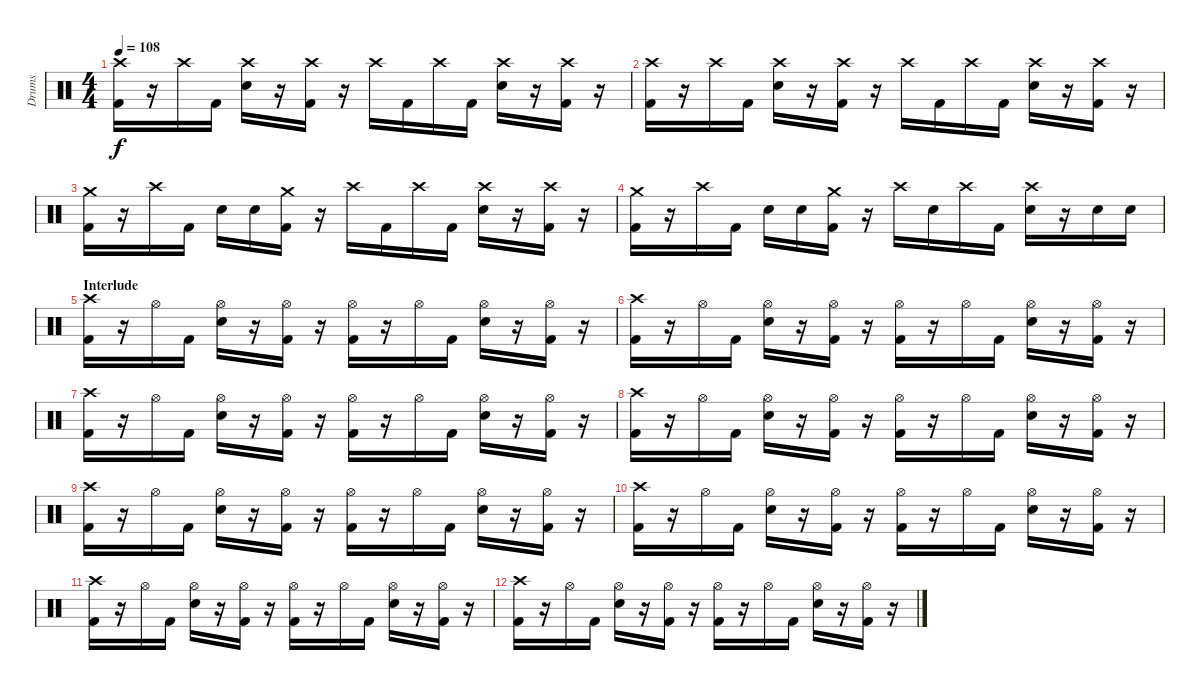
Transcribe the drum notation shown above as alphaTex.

\track ("Drums" "Drums") {instrument percussion}
\staff {score}
\articulation defaults
\ts (4 4)
\tempo 108
\clef neutral
\ks c
("Crash high (hit)" "Kick (hit) 2").16{dy f} r.16 "Crash high (hit)".16 "Kick (hit) 2".16 ("Crash high (hit)" "Electric Snare (hit)").16 r.16 ("Crash high (hit)" "Kick (hit) 2").16 r.16 "Crash high (hit)".16 "Kick (hit) 2".16 "Crash high (hit)".16 "Kick (hit) 2".16 ("Crash high (hit)" "Electric Snare (hit)").16 r.16 ("Crash high (hit)" "Kick (hit) 2").16 r.16 |
("Crash high (hit)" "Kick (hit) 2").16 r.16 "Crash high (hit)".16 "Kick (hit) 2".16 ("Crash high (hit)" "Electric Snare (hit)").16 r.16 ("Crash high (hit)" "Kick (hit) 2").16 r.16 "Crash high (hit)".16 "Kick (hit) 2".16 "Crash high (hit)".16 "Kick (hit) 2".16 ("Crash high (hit)" "Electric Snare (hit)").16 r.16 ("Crash high (hit)" "Kick (hit) 2").16 r.16 |
("Crash medium (hit)" "Kick (hit) 2").16 r.16 "Crash high (hit)".16 "Kick (hit) 2".16 "Electric Snare (hit)".16 "Electric Snare (hit)".16 ("Crash medium (hit)" "Kick (hit) 2").16 r.16 "Crash high (hit)".16 "Kick (hit) 2".16 "Crash high (hit)".16 "Kick (hit) 2".16 ("Crash high (hit)" "Electric Snare (hit)").16 r.16 ("Crash high (hit)" "Kick (hit) 2").16 r.16 |
("Crash medium (hit)" "Kick (hit) 2").16 r.16 "Crash high (hit)".16 "Kick (hit) 2".16 "Electric Snare (hit)".16 "Electric Snare (hit)".16 ("Crash medium (hit)" "Kick (hit) 2").16 r.16 "Crash high (hit)".16 "Electric Snare (hit)".16 "Crash high (hit)".16 "Kick (hit) 2".16 ("Crash high (hit)" "Electric Snare (hit)").16 r.16 "Electric Snare (hit)".16 "Electric Snare (hit)".16 |
\section ("" "Interlude")
("Crash high (hit)" "Kick (hit) 2").16 r.16 "Hi-Hat (open)".16 "Kick (hit) 2".16 ("Hi-Hat (open)" "Electric Snare (hit)").16 r.16 ("Hi-Hat (open)" "Kick (hit) 2").16 r.16 ("Hi-Hat (open)" "Kick (hit) 2").16 r.16 "Hi-Hat (open)".16 "Kick (hit) 2".16 ("Hi-Hat (open)" "Electric Snare (hit)").16 r.16 ("Hi-Hat (open)" "Kick (hit) 2").16 r.16 |
("Crash high (hit)" "Kick (hit) 2").16 r.16 "Hi-Hat (open)".16 "Kick (hit) 2".16 ("Hi-Hat (open)" "Electric Snare (hit)").16 r.16 ("Hi-Hat (open)" "Kick (hit) 2").16 r.16 ("Hi-Hat (open)" "Kick (hit) 2").16 r.16 "Hi-Hat (open)".16 "Kick (hit) 2".16 ("Hi-Hat (open)" "Electric Snare (hit)").16 r.16 ("Hi-Hat (open)" "Kick (hit) 2").16 r.16 |
("Crash high (hit)" "Kick (hit) 2").16 r.16 "Hi-Hat (open)".16 "Kick (hit) 2".16 ("Hi-Hat (open)" "Electric Snare (hit)").16 r.16 ("Hi-Hat (open)" "Kick (hit) 2").16 r.16 ("Hi-Hat (open)" "Kick (hit) 2").16 r.16 "Hi-Hat (open)".16 "Kick (hit) 2".16 ("Hi-Hat (open)" "Electric Snare (hit)").16 r.16 ("Hi-Hat (open)" "Kick (hit) 2").16 r.16 |
("Crash high (hit)" "Kick (hit) 2").16 r.16 "Hi-Hat (open)".16 "Kick (hit) 2".16 ("Hi-Hat (open)" "Electric Snare (hit)").16 r.16 ("Hi-Hat (open)" "Kick (hit) 2").16 r.16 ("Hi-Hat (open)" "Kick (hit) 2").16 r.16 "Hi-Hat (open)".16 "Kick (hit) 2".16 ("Hi-Hat (open)" "Electric Snare (hit)").16 r.16 ("Hi-Hat (open)" "Kick (hit) 2").16 r.16 |
("Crash high (hit)" "Kick (hit) 2").16 r.16 "Hi-Hat (open)".16 "Kick (hit) 2".16 ("Hi-Hat (open)" "Electric Snare (hit)").16 r.16 ("Hi-Hat (open)" "Kick (hit) 2").16 r.16 ("Hi-Hat (open)" "Kick (hit) 2").16 r.16 "Hi-Hat (open)".16 "Kick (hit) 2".16 ("Hi-Hat (open)" "Electric Snare (hit)").16 r.16 ("Hi-Hat (open)" "Kick (hit) 2").16 r.16 |
("Crash high (hit)" "Kick (hit) 2").16 r.16 "Hi-Hat (open)".16 "Kick (hit) 2".16 ("Hi-Hat (open)" "Electric Snare (hit)").16 r.16 ("Hi-Hat (open)" "Kick (hit) 2").16 r.16 ("Hi-Hat (open)" "Kick (hit) 2").16 r.16 "Hi-Hat (open)".16 "Kick (hit) 2".16 ("Hi-Hat (open)" "Electric Snare (hit)").16 r.16 ("Hi-Hat (open)" "Kick (hit) 2").16 r.16 |
("Crash high (hit)" "Kick (hit) 2").16 r.16 "Hi-Hat (open)".16 "Kick (hit) 2".16 ("Hi-Hat (open)" "Electric Snare (hit)").16 r.16 ("Hi-Hat (open)" "Kick (hit) 2").16 r.16 ("Hi-Hat (open)" "Kick (hit) 2").16 r.16 "Hi-Hat (open)".16 "Kick (hit) 2".16 ("Hi-Hat (open)" "Electric Snare (hit)").16 r.16 ("Hi-Hat (open)" "Kick (hit) 2").16 r.16 |
("Crash high (hit)" "Kick (hit) 2").16 r.16 "Hi-Hat (open)".16 "Kick (hit) 2".16 ("Hi-Hat (open)" "Electric Snare (hit)").16 r.16 ("Hi-Hat (open)" "Kick (hit) 2").16 r.16 ("Hi-Hat (open)" "Kick (hit) 2").16 r.16 "Hi-Hat (open)".16 "Kick (hit) 2".16 ("Hi-Hat (open)" "Electric Snare (hit)").16 r.16 ("Hi-Hat (open)" "Kick (hit) 2").16 r.16
